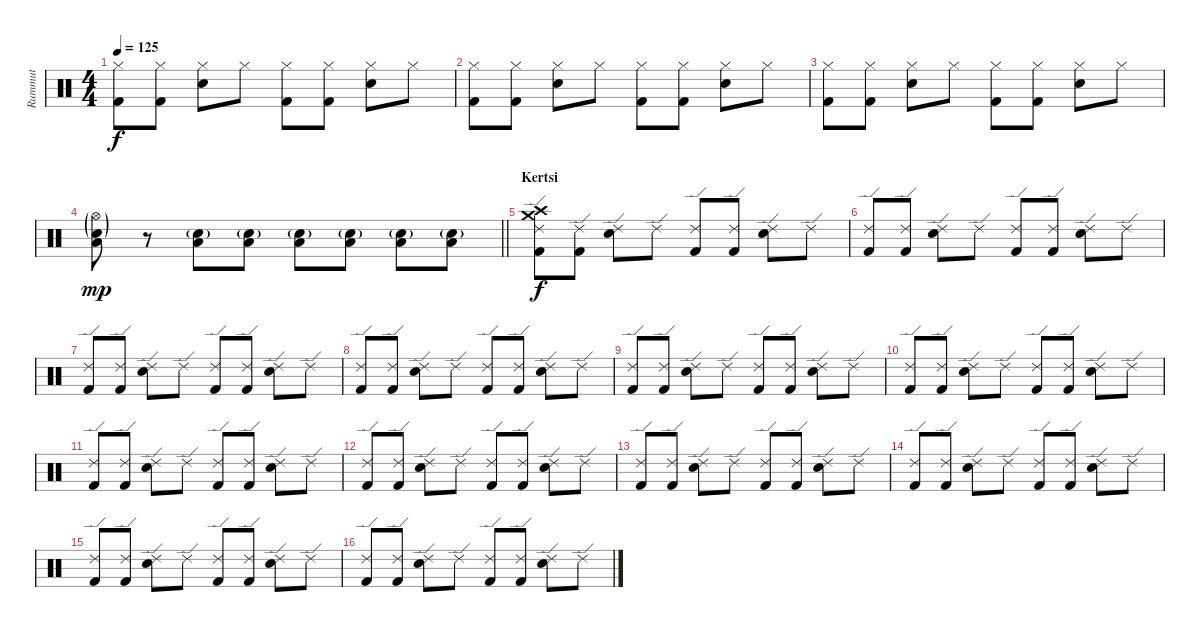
\track ("Rummut" "Rummut") {instrument percussion}
\staff {score}
\articulation defaults
\ts (4 4)
\tempo 125
\clef neutral
\ks c
("Kick (hit) 2" "Hi-Hat (closed)").8{dy f} ("Kick (hit) 2" "Hi-Hat (closed)").8 ("Snare (hit) 2" "Hi-Hat (closed)").8 "Hi-Hat (closed)".8 ("Kick (hit) 2" "Hi-Hat (closed)").8 ("Kick (hit) 2" "Hi-Hat (closed)").8 ("Snare (hit) 2" "Hi-Hat (closed)").8 "Hi-Hat (closed)".8 |
("Kick (hit) 2" "Hi-Hat (closed)").8 ("Kick (hit) 2" "Hi-Hat (closed)").8 ("Snare (hit) 2" "Hi-Hat (closed)").8 "Hi-Hat (closed)".8 ("Kick (hit) 2" "Hi-Hat (closed)").8 ("Kick (hit) 2" "Hi-Hat (closed)").8 ("Snare (hit) 2" "Hi-Hat (closed)").8 "Hi-Hat (closed)".8 |
("Kick (hit) 2" "Hi-Hat (closed)").8 ("Kick (hit) 2" "Hi-Hat (closed)").8 ("Snare (hit) 2" "Hi-Hat (closed)").8 "Hi-Hat (closed)".8 ("Kick (hit) 2" "Hi-Hat (closed)").8 ("Kick (hit) 2" "Hi-Hat (closed)").8 ("Snare (hit) 2" "Hi-Hat (closed)").8 "Hi-Hat (closed)".8 |
\barLineRight lightlight
("Hi-Hat (open)"{g} "Low Tom (hit)" "Snare (hit) 2"{g}).8{dy mp} r.8 ("Low Tom (hit)" "Snare (hit) 2"{g}).8 ("Low Tom (hit)" "Snare (hit) 2"{g}).8 ("Low Tom (hit)" "Snare (hit) 2"{g}).8 ("Low Tom (hit)" "Snare (hit) 2"{g}).8 ("Low Tom (hit)" "Snare (hit) 2"{g}).8 ("Low Tom (hit)" "Snare (hit) 2"{g}).8 |
\section ("" "Kertsi")
("Crash high (hit)" "Kick (hit) 2" "Ride (edge) 2" "Crash medium (hit)").8{dy f} ("Kick (hit) 2" "Ride (edge) 2").8 ("Snare (hit) 2" "Ride (edge) 2").8 "Ride (edge) 2".8 ("Kick (hit) 2" "Ride (edge) 2").8 ("Kick (hit) 2" "Ride (edge) 2").8 ("Snare (hit) 2" "Ride (edge) 2").8 "Ride (edge) 2".8 |
("Kick (hit) 2" "Ride (edge) 2").8 ("Kick (hit) 2" "Ride (edge) 2").8 ("Snare (hit) 2" "Ride (edge) 2").8 "Ride (edge) 2".8 ("Kick (hit) 2" "Ride (edge) 2").8 ("Kick (hit) 2" "Ride (edge) 2").8 ("Snare (hit) 2" "Ride (edge) 2").8 "Ride (edge) 2".8 |
("Kick (hit) 2" "Ride (edge) 2").8 ("Kick (hit) 2" "Ride (edge) 2").8 ("Snare (hit) 2" "Ride (edge) 2").8 "Ride (edge) 2".8 ("Kick (hit) 2" "Ride (edge) 2").8 ("Kick (hit) 2" "Ride (edge) 2").8 ("Snare (hit) 2" "Ride (edge) 2").8 "Ride (edge) 2".8 |
("Kick (hit) 2" "Ride (edge) 2").8 ("Kick (hit) 2" "Ride (edge) 2").8 ("Snare (hit) 2" "Ride (edge) 2").8 "Ride (edge) 2".8 ("Kick (hit) 2" "Ride (edge) 2").8 ("Kick (hit) 2" "Ride (edge) 2").8 ("Snare (hit) 2" "Ride (edge) 2").8 "Ride (edge) 2".8 |
("Kick (hit) 2" "Ride (edge) 2").8 ("Kick (hit) 2" "Ride (edge) 2").8 ("Snare (hit) 2" "Ride (edge) 2").8 "Ride (edge) 2".8 ("Kick (hit) 2" "Ride (edge) 2").8 ("Kick (hit) 2" "Ride (edge) 2").8 ("Snare (hit) 2" "Ride (edge) 2").8 "Ride (edge) 2".8 |
("Kick (hit) 2" "Ride (edge) 2").8 ("Kick (hit) 2" "Ride (edge) 2").8 ("Snare (hit) 2" "Ride (edge) 2").8 "Ride (edge) 2".8 ("Kick (hit) 2" "Ride (edge) 2").8 ("Kick (hit) 2" "Ride (edge) 2").8 ("Snare (hit) 2" "Ride (edge) 2").8 "Ride (edge) 2".8 |
("Kick (hit) 2" "Ride (edge) 2").8 ("Kick (hit) 2" "Ride (edge) 2").8 ("Snare (hit) 2" "Ride (edge) 2").8 "Ride (edge) 2".8 ("Kick (hit) 2" "Ride (edge) 2").8 ("Kick (hit) 2" "Ride (edge) 2").8 ("Snare (hit) 2" "Ride (edge) 2").8 "Ride (edge) 2".8 |
("Kick (hit) 2" "Ride (edge) 2").8 ("Kick (hit) 2" "Ride (edge) 2").8 ("Snare (hit) 2" "Ride (edge) 2").8 "Ride (edge) 2".8 ("Kick (hit) 2" "Ride (edge) 2").8 ("Kick (hit) 2" "Ride (edge) 2").8 ("Snare (hit) 2" "Ride (edge) 2").8 "Ride (edge) 2".8 |
("Kick (hit) 2" "Ride (edge) 2").8 ("Kick (hit) 2" "Ride (edge) 2").8 ("Snare (hit) 2" "Ride (edge) 2").8 "Ride (edge) 2".8 ("Kick (hit) 2" "Ride (edge) 2").8 ("Kick (hit) 2" "Ride (edge) 2").8 ("Snare (hit) 2" "Ride (edge) 2").8 "Ride (edge) 2".8 |
("Kick (hit) 2" "Ride (edge) 2").8 ("Kick (hit) 2" "Ride (edge) 2").8 ("Snare (hit) 2" "Ride (edge) 2").8 "Ride (edge) 2".8 ("Kick (hit) 2" "Ride (edge) 2").8 ("Kick (hit) 2" "Ride (edge) 2").8 ("Snare (hit) 2" "Ride (edge) 2").8 "Ride (edge) 2".8 |
("Kick (hit) 2" "Ride (edge) 2").8 ("Kick (hit) 2" "Ride (edge) 2").8 ("Snare (hit) 2" "Ride (edge) 2").8 "Ride (edge) 2".8 ("Kick (hit) 2" "Ride (edge) 2").8 ("Kick (hit) 2" "Ride (edge) 2").8 ("Snare (hit) 2" "Ride (edge) 2").8 "Ride (edge) 2".8 |
("Kick (hit) 2" "Ride (edge) 2").8 ("Kick (hit) 2" "Ride (edge) 2").8 ("Snare (hit) 2" "Ride (edge) 2").8 "Ride (edge) 2".8 ("Kick (hit) 2" "Ride (edge) 2").8 ("Kick (hit) 2" "Ride (edge) 2").8 ("Snare (hit) 2" "Ride (edge) 2").8 "Ride (edge) 2".8
